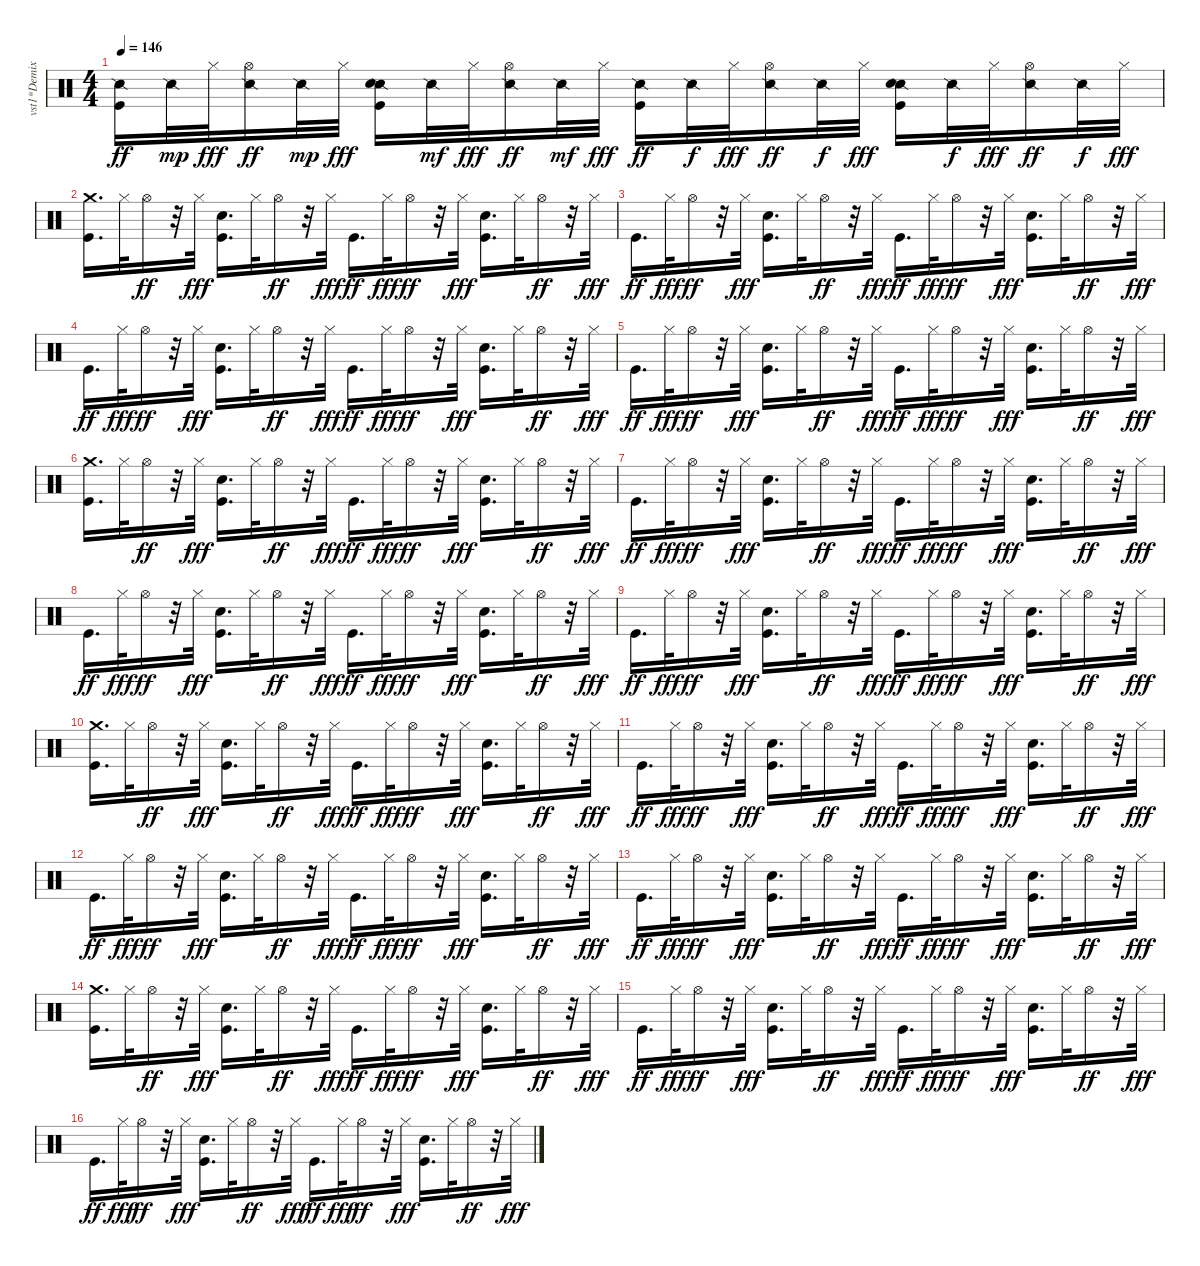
\track ("vst1*Demixed 10" "vst1*Demix") {instrument percussion}
\staff {score}
\articulation defaults
\ts (4 4)
\tempo 146
\clef neutral
\ks c
("Snare (side stick) 2" "Kick (hit)").16{dy ff} "Snare (side stick) 2".32{dy mp} "Hi-Hat (closed)".32{dy fff} ("Snare (side stick) 2" "Hi-Hat (open)").16{dy ff} "Snare (side stick) 2".32{dy mp} "Hi-Hat (closed)".32{dy fff} ("Snare (side stick) 2" "Kick (hit)" "Hand Clap (hit)").16 "Snare (side stick) 2".32{dy mf} "Hi-Hat (closed)".32{dy fff} ("Snare (side stick) 2" "Hi-Hat (open)").16{dy ff} "Snare (side stick) 2".32{dy mf} "Hi-Hat (closed)".32{dy fff} ("Snare (side stick) 2" "Kick (hit)").16{dy ff} "Snare (side stick) 2".32{dy f} "Hi-Hat (closed)".32{dy fff} ("Snare (side stick) 2" "Hi-Hat (open)").16{dy ff} "Snare (side stick) 2".32{dy f} "Hi-Hat (closed)".32{dy fff} ("Snare (side stick) 2" "Kick (hit)" "Hand Clap (hit)").16 "Snare (side stick) 2".32{dy f} "Hi-Hat (closed)".32{dy fff} ("Snare (side stick) 2" "Hi-Hat (open)").16{dy ff} "Snare (side stick) 2".32{dy f} "Hi-Hat (closed)".32{dy fff} |
("Kick (hit)" "Crash medium (hit)").16{d} "Hi-Hat (closed)".32 "Hi-Hat (open)".16{dy ff} r.32 "Hi-Hat (closed)".32{dy fff} ("Kick (hit)" "Hand Clap (hit)").16{d} "Hi-Hat (closed)".32 "Hi-Hat (open)".16{dy ff} r.32 "Hi-Hat (closed)".32{dy fff} "Kick (hit)".16{d dy ff} "Hi-Hat (closed)".32{dy fff} "Hi-Hat (open)".16{dy ff} r.32 "Hi-Hat (closed)".32{dy fff} ("Kick (hit)" "Hand Clap (hit)").16{d} "Hi-Hat (closed)".32 "Hi-Hat (open)".16{dy ff} r.32 "Hi-Hat (closed)".32{dy fff} |
"Kick (hit)".16{d dy ff} "Hi-Hat (closed)".32{dy fff} "Hi-Hat (open)".16{dy ff} r.32 "Hi-Hat (closed)".32{dy fff} ("Kick (hit)" "Hand Clap (hit)").16{d} "Hi-Hat (closed)".32 "Hi-Hat (open)".16{dy ff} r.32 "Hi-Hat (closed)".32{dy fff} "Kick (hit)".16{d dy ff} "Hi-Hat (closed)".32{dy fff} "Hi-Hat (open)".16{dy ff} r.32 "Hi-Hat (closed)".32{dy fff} ("Kick (hit)" "Hand Clap (hit)").16{d} "Hi-Hat (closed)".32 "Hi-Hat (open)".16{dy ff} r.32 "Hi-Hat (closed)".32{dy fff} |
"Kick (hit)".16{d dy ff} "Hi-Hat (closed)".32{dy fff} "Hi-Hat (open)".16{dy ff} r.32 "Hi-Hat (closed)".32{dy fff} ("Kick (hit)" "Hand Clap (hit)").16{d} "Hi-Hat (closed)".32 "Hi-Hat (open)".16{dy ff} r.32 "Hi-Hat (closed)".32{dy fff} "Kick (hit)".16{d dy ff} "Hi-Hat (closed)".32{dy fff} "Hi-Hat (open)".16{dy ff} r.32 "Hi-Hat (closed)".32{dy fff} ("Kick (hit)" "Hand Clap (hit)").16{d} "Hi-Hat (closed)".32 "Hi-Hat (open)".16{dy ff} r.32 "Hi-Hat (closed)".32{dy fff} |
"Kick (hit)".16{d dy ff} "Hi-Hat (closed)".32{dy fff} "Hi-Hat (open)".16{dy ff} r.32 "Hi-Hat (closed)".32{dy fff} ("Kick (hit)" "Hand Clap (hit)").16{d} "Hi-Hat (closed)".32 "Hi-Hat (open)".16{dy ff} r.32 "Hi-Hat (closed)".32{dy fff} "Kick (hit)".16{d dy ff} "Hi-Hat (closed)".32{dy fff} "Hi-Hat (open)".16{dy ff} r.32 "Hi-Hat (closed)".32{dy fff} ("Kick (hit)" "Hand Clap (hit)").16{d} "Hi-Hat (closed)".32 "Hi-Hat (open)".16{dy ff} r.32 "Hi-Hat (closed)".32{dy fff} |
("Kick (hit)" "Crash medium (hit)").16{d} "Hi-Hat (closed)".32 "Hi-Hat (open)".16{dy ff} r.32 "Hi-Hat (closed)".32{dy fff} ("Kick (hit)" "Hand Clap (hit)").16{d} "Hi-Hat (closed)".32 "Hi-Hat (open)".16{dy ff} r.32 "Hi-Hat (closed)".32{dy fff} "Kick (hit)".16{d dy ff} "Hi-Hat (closed)".32{dy fff} "Hi-Hat (open)".16{dy ff} r.32 "Hi-Hat (closed)".32{dy fff} ("Kick (hit)" "Hand Clap (hit)").16{d} "Hi-Hat (closed)".32 "Hi-Hat (open)".16{dy ff} r.32 "Hi-Hat (closed)".32{dy fff} |
"Kick (hit)".16{d dy ff} "Hi-Hat (closed)".32{dy fff} "Hi-Hat (open)".16{dy ff} r.32 "Hi-Hat (closed)".32{dy fff} ("Kick (hit)" "Hand Clap (hit)").16{d} "Hi-Hat (closed)".32 "Hi-Hat (open)".16{dy ff} r.32 "Hi-Hat (closed)".32{dy fff} "Kick (hit)".16{d dy ff} "Hi-Hat (closed)".32{dy fff} "Hi-Hat (open)".16{dy ff} r.32 "Hi-Hat (closed)".32{dy fff} ("Kick (hit)" "Hand Clap (hit)").16{d} "Hi-Hat (closed)".32 "Hi-Hat (open)".16{dy ff} r.32 "Hi-Hat (closed)".32{dy fff} |
"Kick (hit)".16{d dy ff} "Hi-Hat (closed)".32{dy fff} "Hi-Hat (open)".16{dy ff} r.32 "Hi-Hat (closed)".32{dy fff} ("Kick (hit)" "Hand Clap (hit)").16{d} "Hi-Hat (closed)".32 "Hi-Hat (open)".16{dy ff} r.32 "Hi-Hat (closed)".32{dy fff} "Kick (hit)".16{d dy ff} "Hi-Hat (closed)".32{dy fff} "Hi-Hat (open)".16{dy ff} r.32 "Hi-Hat (closed)".32{dy fff} ("Kick (hit)" "Hand Clap (hit)").16{d} "Hi-Hat (closed)".32 "Hi-Hat (open)".16{dy ff} r.32 "Hi-Hat (closed)".32{dy fff} |
"Kick (hit)".16{d dy ff} "Hi-Hat (closed)".32{dy fff} "Hi-Hat (open)".16{dy ff} r.32 "Hi-Hat (closed)".32{dy fff} ("Kick (hit)" "Hand Clap (hit)").16{d} "Hi-Hat (closed)".32 "Hi-Hat (open)".16{dy ff} r.32 "Hi-Hat (closed)".32{dy fff} "Kick (hit)".16{d dy ff} "Hi-Hat (closed)".32{dy fff} "Hi-Hat (open)".16{dy ff} r.32 "Hi-Hat (closed)".32{dy fff} ("Kick (hit)" "Hand Clap (hit)").16{d} "Hi-Hat (closed)".32 "Hi-Hat (open)".16{dy ff} r.32 "Hi-Hat (closed)".32{dy fff} |
("Kick (hit)" "Crash medium (hit)").16{d} "Hi-Hat (closed)".32 "Hi-Hat (open)".16{dy ff} r.32 "Hi-Hat (closed)".32{dy fff} ("Kick (hit)" "Hand Clap (hit)").16{d} "Hi-Hat (closed)".32 "Hi-Hat (open)".16{dy ff} r.32 "Hi-Hat (closed)".32{dy fff} "Kick (hit)".16{d dy ff} "Hi-Hat (closed)".32{dy fff} "Hi-Hat (open)".16{dy ff} r.32 "Hi-Hat (closed)".32{dy fff} ("Kick (hit)" "Hand Clap (hit)").16{d} "Hi-Hat (closed)".32 "Hi-Hat (open)".16{dy ff} r.32 "Hi-Hat (closed)".32{dy fff} |
"Kick (hit)".16{d dy ff} "Hi-Hat (closed)".32{dy fff} "Hi-Hat (open)".16{dy ff} r.32 "Hi-Hat (closed)".32{dy fff} ("Kick (hit)" "Hand Clap (hit)").16{d} "Hi-Hat (closed)".32 "Hi-Hat (open)".16{dy ff} r.32 "Hi-Hat (closed)".32{dy fff} "Kick (hit)".16{d dy ff} "Hi-Hat (closed)".32{dy fff} "Hi-Hat (open)".16{dy ff} r.32 "Hi-Hat (closed)".32{dy fff} ("Kick (hit)" "Hand Clap (hit)").16{d} "Hi-Hat (closed)".32 "Hi-Hat (open)".16{dy ff} r.32 "Hi-Hat (closed)".32{dy fff} |
"Kick (hit)".16{d dy ff} "Hi-Hat (closed)".32{dy fff} "Hi-Hat (open)".16{dy ff} r.32 "Hi-Hat (closed)".32{dy fff} ("Kick (hit)" "Hand Clap (hit)").16{d} "Hi-Hat (closed)".32 "Hi-Hat (open)".16{dy ff} r.32 "Hi-Hat (closed)".32{dy fff} "Kick (hit)".16{d dy ff} "Hi-Hat (closed)".32{dy fff} "Hi-Hat (open)".16{dy ff} r.32 "Hi-Hat (closed)".32{dy fff} ("Kick (hit)" "Hand Clap (hit)").16{d} "Hi-Hat (closed)".32 "Hi-Hat (open)".16{dy ff} r.32 "Hi-Hat (closed)".32{dy fff} |
"Kick (hit)".16{d dy ff} "Hi-Hat (closed)".32{dy fff} "Hi-Hat (open)".16{dy ff} r.32 "Hi-Hat (closed)".32{dy fff} ("Kick (hit)" "Hand Clap (hit)").16{d} "Hi-Hat (closed)".32 "Hi-Hat (open)".16{dy ff} r.32 "Hi-Hat (closed)".32{dy fff} "Kick (hit)".16{d dy ff} "Hi-Hat (closed)".32{dy fff} "Hi-Hat (open)".16{dy ff} r.32 "Hi-Hat (closed)".32{dy fff} ("Kick (hit)" "Hand Clap (hit)").16{d} "Hi-Hat (closed)".32 "Hi-Hat (open)".16{dy ff} r.32 "Hi-Hat (closed)".32{dy fff} |
("Kick (hit)" "Crash medium (hit)").16{d} "Hi-Hat (closed)".32 "Hi-Hat (open)".16{dy ff} r.32 "Hi-Hat (closed)".32{dy fff} ("Kick (hit)" "Hand Clap (hit)").16{d} "Hi-Hat (closed)".32 "Hi-Hat (open)".16{dy ff} r.32 "Hi-Hat (closed)".32{dy fff} "Kick (hit)".16{d dy ff} "Hi-Hat (closed)".32{dy fff} "Hi-Hat (open)".16{dy ff} r.32 "Hi-Hat (closed)".32{dy fff} ("Kick (hit)" "Hand Clap (hit)").16{d} "Hi-Hat (closed)".32 "Hi-Hat (open)".16{dy ff} r.32 "Hi-Hat (closed)".32{dy fff} |
"Kick (hit)".16{d dy ff} "Hi-Hat (closed)".32{dy fff} "Hi-Hat (open)".16{dy ff} r.32 "Hi-Hat (closed)".32{dy fff} ("Kick (hit)" "Hand Clap (hit)").16{d} "Hi-Hat (closed)".32 "Hi-Hat (open)".16{dy ff} r.32 "Hi-Hat (closed)".32{dy fff} "Kick (hit)".16{d dy ff} "Hi-Hat (closed)".32{dy fff} "Hi-Hat (open)".16{dy ff} r.32 "Hi-Hat (closed)".32{dy fff} ("Kick (hit)" "Hand Clap (hit)").16{d} "Hi-Hat (closed)".32 "Hi-Hat (open)".16{dy ff} r.32 "Hi-Hat (closed)".32{dy fff} |
"Kick (hit)".16{d dy ff} "Hi-Hat (closed)".32{dy fff} "Hi-Hat (open)".16{dy ff} r.32 "Hi-Hat (closed)".32{dy fff} ("Kick (hit)" "Hand Clap (hit)").16{d} "Hi-Hat (closed)".32 "Hi-Hat (open)".16{dy ff} r.32 "Hi-Hat (closed)".32{dy fff} "Kick (hit)".16{d dy ff} "Hi-Hat (closed)".32{dy fff} "Hi-Hat (open)".16{dy ff} r.32 "Hi-Hat (closed)".32{dy fff} ("Kick (hit)" "Hand Clap (hit)").16{d} "Hi-Hat (closed)".32 "Hi-Hat (open)".16{dy ff} r.32 "Hi-Hat (closed)".32{dy fff}
